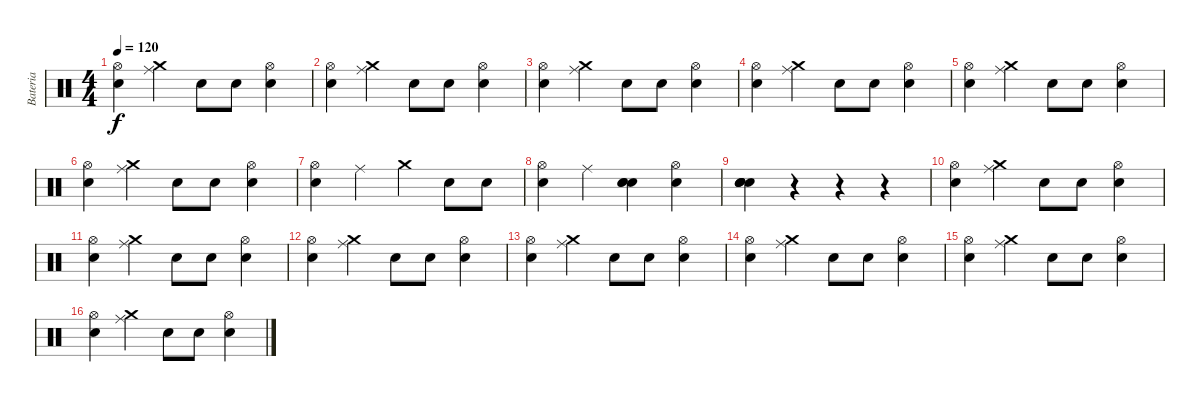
\track ("Bateria" "Bateria") {instrument percussion}
\staff {score}
\articulation defaults
\ts (4 4)
\tempo 120
\clef neutral
\ks c
("Electric Snare (hit)" "Hi-Hat (open)").4{dy f} ("Ride (middle)" "Crash medium (hit)").4 "Electric Snare (hit)".8 "Electric Snare (hit)".8 ("Electric Snare (hit)" "Hi-Hat (open)").4 |
("Electric Snare (hit)" "Hi-Hat (open)").4 ("Ride (middle)" "Crash medium (hit)").4 "Electric Snare (hit)".8 "Electric Snare (hit)".8 ("Electric Snare (hit)" "Hi-Hat (open)").4 |
("Electric Snare (hit)" "Hi-Hat (open)").4 ("Ride (middle)" "Crash medium (hit)").4 "Electric Snare (hit)".8 "Electric Snare (hit)".8 ("Electric Snare (hit)" "Hi-Hat (open)").4 |
("Electric Snare (hit)" "Hi-Hat (open)").4 ("Ride (middle)" "Crash medium (hit)").4 "Electric Snare (hit)".8 "Electric Snare (hit)".8 ("Electric Snare (hit)" "Hi-Hat (open)").4 |
("Electric Snare (hit)" "Hi-Hat (open)").4 ("Ride (middle)" "Crash medium (hit)").4 "Electric Snare (hit)".8 "Electric Snare (hit)".8 ("Electric Snare (hit)" "Hi-Hat (open)").4 |
("Electric Snare (hit)" "Hi-Hat (open)").4 ("Ride (middle)" "Crash medium (hit)").4 "Electric Snare (hit)".8 "Electric Snare (hit)".8 ("Electric Snare (hit)" "Hi-Hat (open)").4 |
("Electric Snare (hit)" "Hi-Hat (open)").4 "Ride (middle)".4 "Crash medium (hit)".4 "Electric Snare (hit)".8 "Electric Snare (hit)".8 |
("Electric Snare (hit)" "Hi-Hat (open)").4 "Ride (middle)".4 ("Electric Snare (hit)" "Electric Snare (hit)" "Electric Snare (hit)").4 ("Electric Snare (hit)" "Hi-Hat (open)").4 |
("Electric Snare (hit)" "Electric Snare (hit)" "Electric Snare (hit)" "Electric Snare (hit)").4 r.4 r.4 r.4 |
("Electric Snare (hit)" "Hi-Hat (open)").4 ("Ride (middle)" "Crash medium (hit)").4 "Electric Snare (hit)".8 "Electric Snare (hit)".8 ("Electric Snare (hit)" "Hi-Hat (open)").4 |
("Electric Snare (hit)" "Hi-Hat (open)").4 ("Ride (middle)" "Crash medium (hit)").4 "Electric Snare (hit)".8 "Electric Snare (hit)".8 ("Electric Snare (hit)" "Hi-Hat (open)").4 |
("Electric Snare (hit)" "Hi-Hat (open)").4 ("Ride (middle)" "Crash medium (hit)").4 "Electric Snare (hit)".8 "Electric Snare (hit)".8 ("Electric Snare (hit)" "Hi-Hat (open)").4 |
("Electric Snare (hit)" "Hi-Hat (open)").4 ("Ride (middle)" "Crash medium (hit)").4 "Electric Snare (hit)".8 "Electric Snare (hit)".8 ("Electric Snare (hit)" "Hi-Hat (open)").4 |
("Electric Snare (hit)" "Hi-Hat (open)").4 ("Ride (middle)" "Crash medium (hit)").4 "Electric Snare (hit)".8 "Electric Snare (hit)".8 ("Electric Snare (hit)" "Hi-Hat (open)").4 |
("Electric Snare (hit)" "Hi-Hat (open)").4 ("Ride (middle)" "Crash medium (hit)").4 "Electric Snare (hit)".8 "Electric Snare (hit)".8 ("Electric Snare (hit)" "Hi-Hat (open)").4 |
("Electric Snare (hit)" "Hi-Hat (open)").4 ("Ride (middle)" "Crash medium (hit)").4 "Electric Snare (hit)".8 "Electric Snare (hit)".8 ("Electric Snare (hit)" "Hi-Hat (open)").4
